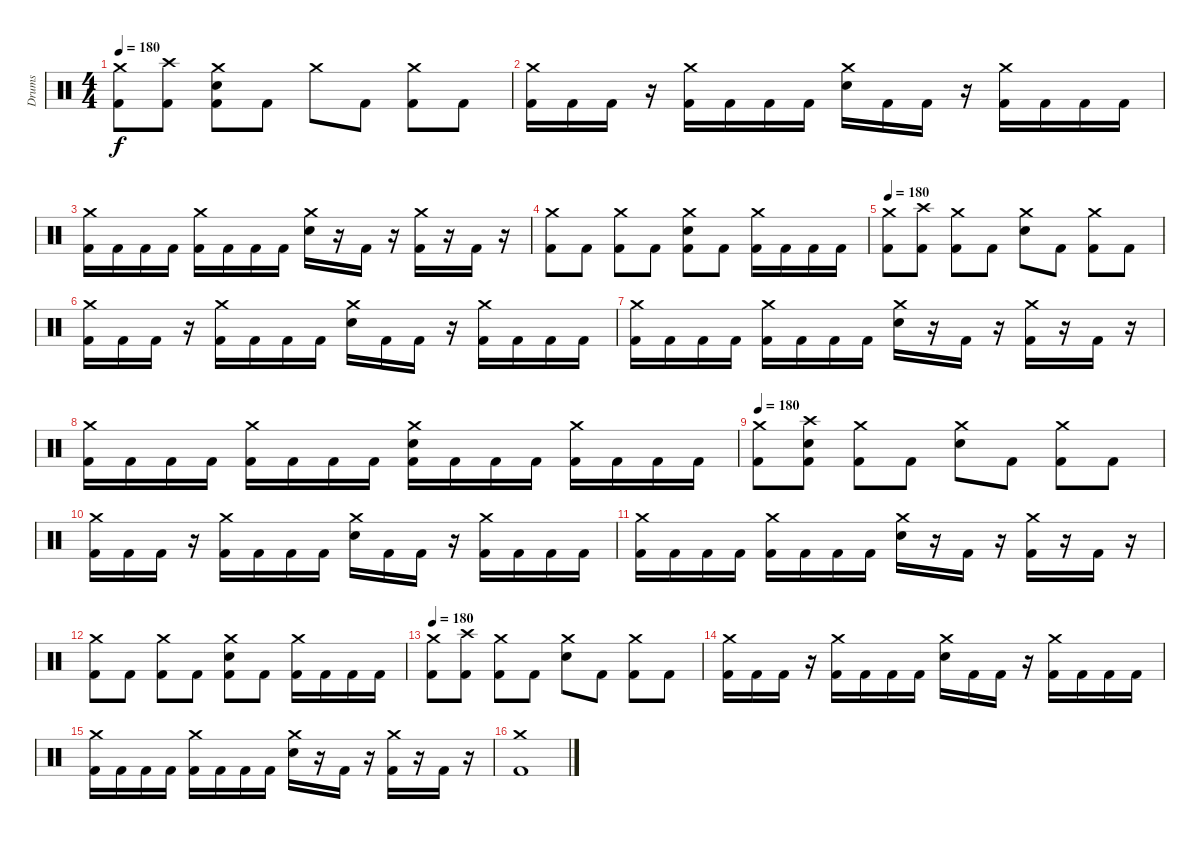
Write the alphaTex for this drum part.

\track ("Drums" "Drums") {instrument percussion}
\staff {score}
\articulation defaults
\ts (4 4)
\tempo 180
\clef neutral
\ks c
("Crash medium (hit)" "Kick (hit) 2").8{dy f} ("Crash high (hit)" "Kick (hit) 2").8 ("Crash medium (hit)" "Snare (hit) 2" "Kick (hit) 2").8 "Kick (hit) 2".8 "Crash medium (hit)".8 "Kick (hit) 2".8 ("Crash medium (hit)" "Kick (hit) 2").8 "Kick (hit) 2".8 |
("Crash medium (hit)" "Kick (hit) 2").16 "Kick (hit) 2".16 "Kick (hit) 2".16 r.16 ("Crash medium (hit)" "Kick (hit) 2").16 "Kick (hit) 2".16 "Kick (hit) 2".16 "Kick (hit) 2".16 ("Crash medium (hit)" "Snare (hit) 2").16 "Kick (hit) 2".16 "Kick (hit) 2".16 r.16 ("Crash medium (hit)" "Kick (hit) 2").16 "Kick (hit) 2".16 "Kick (hit) 2".16 "Kick (hit) 2".16 |
("Crash medium (hit)" "Kick (hit) 2").16 "Kick (hit) 2".16 "Kick (hit) 2".16 "Kick (hit) 2".16 ("Crash medium (hit)" "Kick (hit) 2").16 "Kick (hit) 2".16 "Kick (hit) 2".16 "Kick (hit) 2".16 ("Crash medium (hit)" "Snare (hit) 2").16 r.16 "Kick (hit) 2".16 r.16 ("Crash medium (hit)" "Kick (hit) 2").16 r.16 "Kick (hit) 2".16 r.16 |
("Crash medium (hit)" "Kick (hit) 2").8 "Kick (hit) 2".8 ("Crash medium (hit)" "Kick (hit) 2").8 "Kick (hit) 2".8 ("Crash medium (hit)" "Snare (hit) 2" "Kick (hit) 2").8 "Kick (hit) 2".8 ("Crash medium (hit)" "Kick (hit) 2").16 "Kick (hit) 2".16 "Kick (hit) 2".16 "Kick (hit) 2".16 |
\tempo 180
("Crash medium (hit)" "Kick (hit) 2").8 ("Crash high (hit)" "Kick (hit) 2").8 ("Crash medium (hit)" "Kick (hit) 2").8 "Kick (hit) 2".8 ("Crash medium (hit)" "Snare (hit) 2").8 "Kick (hit) 2".8 ("Crash medium (hit)" "Kick (hit) 2").8 "Kick (hit) 2".8 |
("Crash medium (hit)" "Kick (hit) 2").16 "Kick (hit) 2".16 "Kick (hit) 2".16 r.16 ("Crash medium (hit)" "Kick (hit) 2").16 "Kick (hit) 2".16 "Kick (hit) 2".16 "Kick (hit) 2".16 ("Crash medium (hit)" "Snare (hit) 2").16 "Kick (hit) 2".16 "Kick (hit) 2".16 r.16 ("Crash medium (hit)" "Kick (hit) 2").16 "Kick (hit) 2".16 "Kick (hit) 2".16 "Kick (hit) 2".16 |
("Crash medium (hit)" "Kick (hit) 2").16 "Kick (hit) 2".16 "Kick (hit) 2".16 "Kick (hit) 2".16 ("Crash medium (hit)" "Kick (hit) 2").16 "Kick (hit) 2".16 "Kick (hit) 2".16 "Kick (hit) 2".16 ("Crash medium (hit)" "Snare (hit) 2").16 r.16 "Kick (hit) 2".16 r.16 ("Crash medium (hit)" "Kick (hit) 2").16 r.16 "Kick (hit) 2".16 r.16 |
("Crash medium (hit)" "Kick (hit) 2").16 "Kick (hit) 2".16 "Kick (hit) 2".16 "Kick (hit) 2".16 ("Crash medium (hit)" "Kick (hit) 2").16 "Kick (hit) 2".16 "Kick (hit) 2".16 "Kick (hit) 2".16 ("Crash medium (hit)" "Snare (hit) 2" "Kick (hit) 2").16 "Kick (hit) 2".16 "Kick (hit) 2".16 "Kick (hit) 2".16 ("Crash medium (hit)" "Kick (hit) 2").16 "Kick (hit) 2".16 "Kick (hit) 2".16 "Kick (hit) 2".16 |
\tempo 180
("Crash medium (hit)" "Kick (hit) 2").8 ("Crash high (hit)" "Snare (hit) 2" "Kick (hit) 2").8 ("Crash medium (hit)" "Kick (hit) 2").8 "Kick (hit) 2".8 ("Crash medium (hit)" "Snare (hit) 2").8 "Kick (hit) 2".8 ("Crash medium (hit)" "Kick (hit) 2").8 "Kick (hit) 2".8 |
("Crash medium (hit)" "Kick (hit) 2").16 "Kick (hit) 2".16 "Kick (hit) 2".16 r.16 ("Crash medium (hit)" "Kick (hit) 2").16 "Kick (hit) 2".16 "Kick (hit) 2".16 "Kick (hit) 2".16 ("Crash medium (hit)" "Snare (hit) 2").16 "Kick (hit) 2".16 "Kick (hit) 2".16 r.16 ("Crash medium (hit)" "Kick (hit) 2").16 "Kick (hit) 2".16 "Kick (hit) 2".16 "Kick (hit) 2".16 |
("Crash medium (hit)" "Kick (hit) 2").16 "Kick (hit) 2".16 "Kick (hit) 2".16 "Kick (hit) 2".16 ("Crash medium (hit)" "Kick (hit) 2").16 "Kick (hit) 2".16 "Kick (hit) 2".16 "Kick (hit) 2".16 ("Crash medium (hit)" "Snare (hit) 2").16 r.16 "Kick (hit) 2".16 r.16 ("Crash medium (hit)" "Kick (hit) 2").16 r.16 "Kick (hit) 2".16 r.16 |
("Crash medium (hit)" "Kick (hit) 2").8 "Kick (hit) 2".8 ("Crash medium (hit)" "Kick (hit) 2").8 "Kick (hit) 2".8 ("Crash medium (hit)" "Snare (hit) 2" "Kick (hit) 2").8 "Kick (hit) 2".8 ("Crash medium (hit)" "Kick (hit) 2").16 "Kick (hit) 2".16 "Kick (hit) 2".16 "Kick (hit) 2".16 |
\tempo 180
("Crash medium (hit)" "Kick (hit) 2").8 ("Crash high (hit)" "Kick (hit) 2").8 ("Crash medium (hit)" "Kick (hit) 2").8 "Kick (hit) 2".8 ("Crash medium (hit)" "Snare (hit) 2").8 "Kick (hit) 2".8 ("Crash medium (hit)" "Kick (hit) 2").8 "Kick (hit) 2".8 |
("Crash medium (hit)" "Kick (hit) 2").16 "Kick (hit) 2".16 "Kick (hit) 2".16 r.16 ("Crash medium (hit)" "Kick (hit) 2").16 "Kick (hit) 2".16 "Kick (hit) 2".16 "Kick (hit) 2".16 ("Crash medium (hit)" "Snare (hit) 2").16 "Kick (hit) 2".16 "Kick (hit) 2".16 r.16 ("Crash medium (hit)" "Kick (hit) 2").16 "Kick (hit) 2".16 "Kick (hit) 2".16 "Kick (hit) 2".16 |
("Crash medium (hit)" "Kick (hit) 2").16 "Kick (hit) 2".16 "Kick (hit) 2".16 "Kick (hit) 2".16 ("Crash medium (hit)" "Kick (hit) 2").16 "Kick (hit) 2".16 "Kick (hit) 2".16 "Kick (hit) 2".16 ("Crash medium (hit)" "Snare (hit) 2").16 r.16 "Kick (hit) 2".16 r.16 ("Crash medium (hit)" "Kick (hit) 2").16 r.16 "Kick (hit) 2".16 r.16 |
("Crash medium (hit)" "Kick (hit) 2").1
